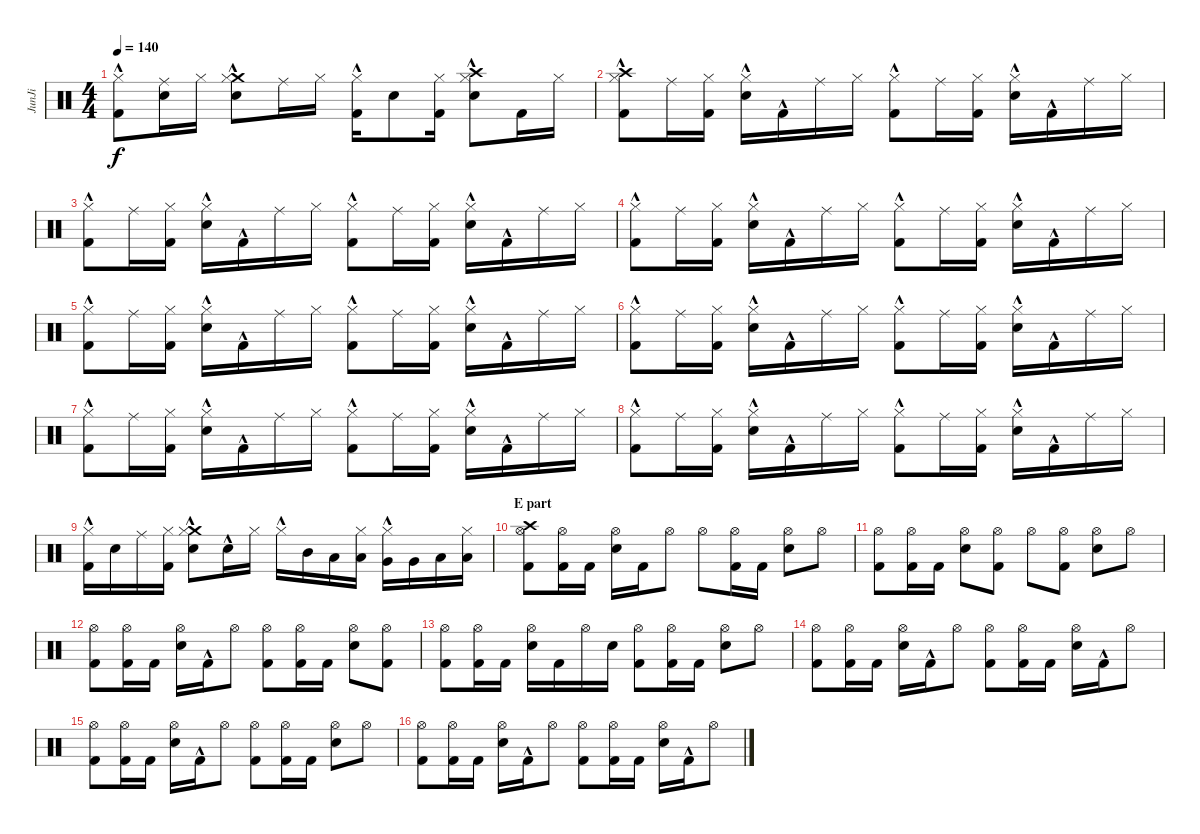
\track ("JunJi" "JunJi") {instrument percussion}
\staff {score}
\articulation defaults
\ts (4 4)
\tempo 140
\clef neutral
\ks c
("Hi-Hat (closed)"{hac} "Kick (hit) 2").8{dy f} ("Ride (middle)" "Electric Snare (hit)").16 "Hi-Hat (closed)".16 ("Crash medium (hit)" "Electric Snare (hit)" "Hi-Hat (closed)"{hac}).8 "Ride (middle)".16 "Hi-Hat (closed)".16 ("Kick (hit) 2" "Hi-Hat (closed)"{hac}).16 "Electric Snare (hit)".8 ("Hi-Hat (closed)" "Kick (hit) 2").16 ("Hi-Hat (closed)"{hac} "Crash high (hit)" "Electric Snare (hit)").8 "Kick (hit) 2".16 "Hi-Hat (closed)".16 |
("Hi-Hat (closed)"{hac} "Crash high (hit)" "Kick (hit) 2"{hac}).8 "Ride (middle)".16 ("Hi-Hat (closed)" "Kick (hit) 2").16 ("Electric Snare (hit)" "Hi-Hat (closed)"{hac}).16 "Kick (hit) 2"{hac}.16 "Ride (middle)".16 "Hi-Hat (closed)".16 ("Kick (hit) 2"{hac} "Hi-Hat (closed)"{hac}).8 "Ride (middle)".16 ("Kick (hit) 2" "Hi-Hat (closed)").16 ("Electric Snare (hit)" "Hi-Hat (closed)"{hac}).16 "Kick (hit) 2"{hac}.16 "Ride (middle)".16 "Hi-Hat (closed)".16 |
("Kick (hit) 2"{hac} "Hi-Hat (closed)"{hac}).8 "Ride (middle)".16 ("Hi-Hat (closed)" "Kick (hit) 2").16 ("Hi-Hat (closed)"{hac} "Electric Snare (hit)").16 "Kick (hit) 2"{hac}.16 "Ride (middle)".16 "Hi-Hat (closed)".16 ("Hi-Hat (closed)"{hac} "Kick (hit) 2"{hac}).8 "Ride (middle)".16 ("Kick (hit) 2" "Hi-Hat (closed)").16 ("Hi-Hat (closed)"{hac} "Electric Snare (hit)").16 "Kick (hit) 2"{hac}.16 "Ride (middle)".16 "Hi-Hat (closed)".16 |
("Kick (hit) 2"{hac} "Hi-Hat (closed)"{hac}).8 "Ride (middle)".16 ("Hi-Hat (closed)" "Kick (hit) 2").16 ("Electric Snare (hit)" "Hi-Hat (closed)"{hac}).16 "Kick (hit) 2"{hac}.16 "Ride (middle)".16 "Hi-Hat (closed)".16 ("Kick (hit) 2"{hac} "Hi-Hat (closed)"{hac}).8 "Ride (middle)".16 ("Hi-Hat (closed)" "Kick (hit) 2").16 ("Electric Snare (hit)" "Hi-Hat (closed)"{hac}).16 "Kick (hit) 2"{hac}.16 "Ride (middle)".16 "Hi-Hat (closed)".16 |
("Hi-Hat (closed)"{hac} "Kick (hit) 2"{hac}).8 "Ride (middle)".16 ("Hi-Hat (closed)" "Kick (hit) 2").16 ("Electric Snare (hit)" "Hi-Hat (closed)"{hac}).16 "Kick (hit) 2"{hac}.16 "Ride (middle)".16 "Hi-Hat (closed)".16 ("Hi-Hat (closed)"{hac} "Kick (hit) 2"{hac}).8 "Ride (middle)".16 ("Hi-Hat (closed)" "Kick (hit) 2").16 ("Electric Snare (hit)" "Hi-Hat (closed)"{hac}).16 "Kick (hit) 2"{hac}.16 "Ride (middle)".16 "Hi-Hat (closed)".16 |
("Kick (hit) 2"{hac} "Hi-Hat (closed)"{hac}).8 "Ride (middle)".16 ("Kick (hit) 2" "Hi-Hat (closed)").16 ("Electric Snare (hit)" "Hi-Hat (closed)"{hac}).16 "Kick (hit) 2"{hac}.16 "Ride (middle)".16 "Hi-Hat (closed)".16 ("Hi-Hat (closed)"{hac} "Kick (hit) 2"{hac}).8 "Ride (middle)".16 ("Kick (hit) 2" "Hi-Hat (closed)").16 ("Hi-Hat (closed)"{hac} "Electric Snare (hit)").16 "Kick (hit) 2"{hac}.16 "Ride (middle)".16 "Hi-Hat (closed)".16 |
("Hi-Hat (closed)"{hac} "Kick (hit) 2"{hac}).8 "Ride (middle)".16 ("Hi-Hat (closed)" "Kick (hit) 2").16 ("Electric Snare (hit)" "Hi-Hat (closed)"{hac}).16 "Kick (hit) 2"{hac}.16 "Ride (middle)".16 "Hi-Hat (closed)".16 ("Kick (hit) 2"{hac} "Hi-Hat (closed)"{hac}).8 "Ride (middle)".16 ("Hi-Hat (closed)" "Kick (hit) 2").16 ("Electric Snare (hit)" "Hi-Hat (closed)"{hac}).16 "Kick (hit) 2"{hac}.16 "Ride (middle)".16 "Hi-Hat (closed)".16 |
("Kick (hit) 2"{hac} "Hi-Hat (closed)"{hac}).8 "Ride (middle)".16 ("Hi-Hat (closed)" "Kick (hit) 2").16 ("Hi-Hat (closed)"{hac} "Electric Snare (hit)").16 "Kick (hit) 2"{hac}.16 "Ride (middle)".16 "Hi-Hat (closed)".16 ("Kick (hit) 2"{hac} "Hi-Hat (closed)"{hac}).8 "Ride (middle)".16 ("Kick (hit) 2" "Hi-Hat (closed)").16 ("Electric Snare (hit)" "Hi-Hat (closed)"{hac}).16 "Kick (hit) 2"{hac}.16 "Ride (middle)".16 "Hi-Hat (closed)".16 |
("Hi-Hat (closed)"{hac} "Kick (hit) 2").16 "Electric Snare (hit)".16 "Ride (middle)".16 ("Kick (hit) 2" "Hi-Hat (closed)").16 ("Crash medium (hit)" "Electric Snare (hit)" "Hi-Hat (closed)"{hac}).8 "Electric Snare (hit)"{hac}.16 "Hi-Hat (closed)".16 "Hi-Hat (closed)"{hac}.16 "Mid Tom (hit)".16 "Low Tom (hit)".16 ("Low Tom (hit)" "Hi-Hat (closed)").16 ("Very Low Tom (hit)" "Hi-Hat (closed)"{hac}).16 "Very Low Tom (hit)".16 "Low Floor Tom (hit)".16 ("Low Floor Tom (hit)" "Hi-Hat (closed)").16 |
\section ("" "E part")
("Crash high (hit)" "Hi-Hat (open)" "Kick (hit) 2").8 ("Hi-Hat (open)" "Kick (hit) 2").16 "Kick (hit) 2".16 ("Electric Snare (hit)" "Hi-Hat (open)").16 "Kick (hit) 2".16 "Hi-Hat (open)".8 "Hi-Hat (open)".8 ("Kick (hit) 2" "Hi-Hat (open)").16 "Kick (hit) 2".16 ("Electric Snare (hit)" "Hi-Hat (open)").8 "Hi-Hat (open)".8 |
("Hi-Hat (open)" "Kick (hit) 2").8 ("Kick (hit) 2" "Hi-Hat (open)").16 "Kick (hit) 2".16 ("Electric Snare (hit)" "Hi-Hat (open)").8 ("Kick (hit) 2" "Hi-Hat (open)").8 "Hi-Hat (open)".8 ("Kick (hit) 2" "Hi-Hat (open)").8 ("Hi-Hat (open)" "Electric Snare (hit)").8 "Hi-Hat (open)".8 |
("Kick (hit) 2" "Hi-Hat (open)").8 ("Hi-Hat (open)" "Kick (hit) 2").16 "Kick (hit) 2".16 ("Electric Snare (hit)" "Hi-Hat (open)").16 "Kick (hit) 2"{hac}.16 "Hi-Hat (open)".8 ("Kick (hit) 2" "Hi-Hat (open)").8 ("Hi-Hat (open)" "Kick (hit) 2").16 "Kick (hit) 2".16 ("Electric Snare (hit)" "Hi-Hat (open)").8 ("Kick (hit) 2" "Hi-Hat (open)").8 |
("Hi-Hat (open)" "Kick (hit) 2").8 ("Kick (hit) 2" "Hi-Hat (open)").16 "Kick (hit) 2".16 ("Electric Snare (hit)" "Hi-Hat (open)").16 "Kick (hit) 2".16 "Hi-Hat (open)".16 "Electric Snare (hit)".16 ("Kick (hit) 2" "Hi-Hat (open)").8 ("Kick (hit) 2" "Hi-Hat (open)").16 "Kick (hit) 2".16 ("Electric Snare (hit)" "Hi-Hat (open)").8 "Hi-Hat (open)".8 |
("Hi-Hat (open)" "Kick (hit) 2").8 ("Hi-Hat (open)" "Kick (hit) 2").16 "Kick (hit) 2".16 ("Electric Snare (hit)" "Hi-Hat (open)").16 "Kick (hit) 2"{hac}.16 "Hi-Hat (open)".8 ("Hi-Hat (open)" "Kick (hit) 2").8 ("Kick (hit) 2" "Hi-Hat (open)").16 "Kick (hit) 2".16 ("Hi-Hat (open)" "Electric Snare (hit)").16 "Kick (hit) 2"{hac}.16 "Hi-Hat (open)".8 |
("Hi-Hat (open)" "Kick (hit) 2").8 ("Kick (hit) 2" "Hi-Hat (open)").16 "Kick (hit) 2".16 ("Hi-Hat (open)" "Electric Snare (hit)").16 "Kick (hit) 2"{hac}.16 "Hi-Hat (open)".8 ("Hi-Hat (open)" "Kick (hit) 2").8 ("Hi-Hat (open)" "Kick (hit) 2").16 "Kick (hit) 2".16 ("Hi-Hat (open)" "Electric Snare (hit)").8 "Hi-Hat (open)".8 |
("Hi-Hat (open)" "Kick (hit) 2").8 ("Kick (hit) 2" "Hi-Hat (open)").16 "Kick (hit) 2".16 ("Hi-Hat (open)" "Electric Snare (hit)").16 "Kick (hit) 2"{hac}.16 "Hi-Hat (open)".8 ("Hi-Hat (open)" "Kick (hit) 2").8 ("Hi-Hat (open)" "Kick (hit) 2").16 "Kick (hit) 2".16 ("Hi-Hat (open)" "Electric Snare (hit)").16 "Kick (hit) 2"{hac}.16 "Hi-Hat (open)".8
